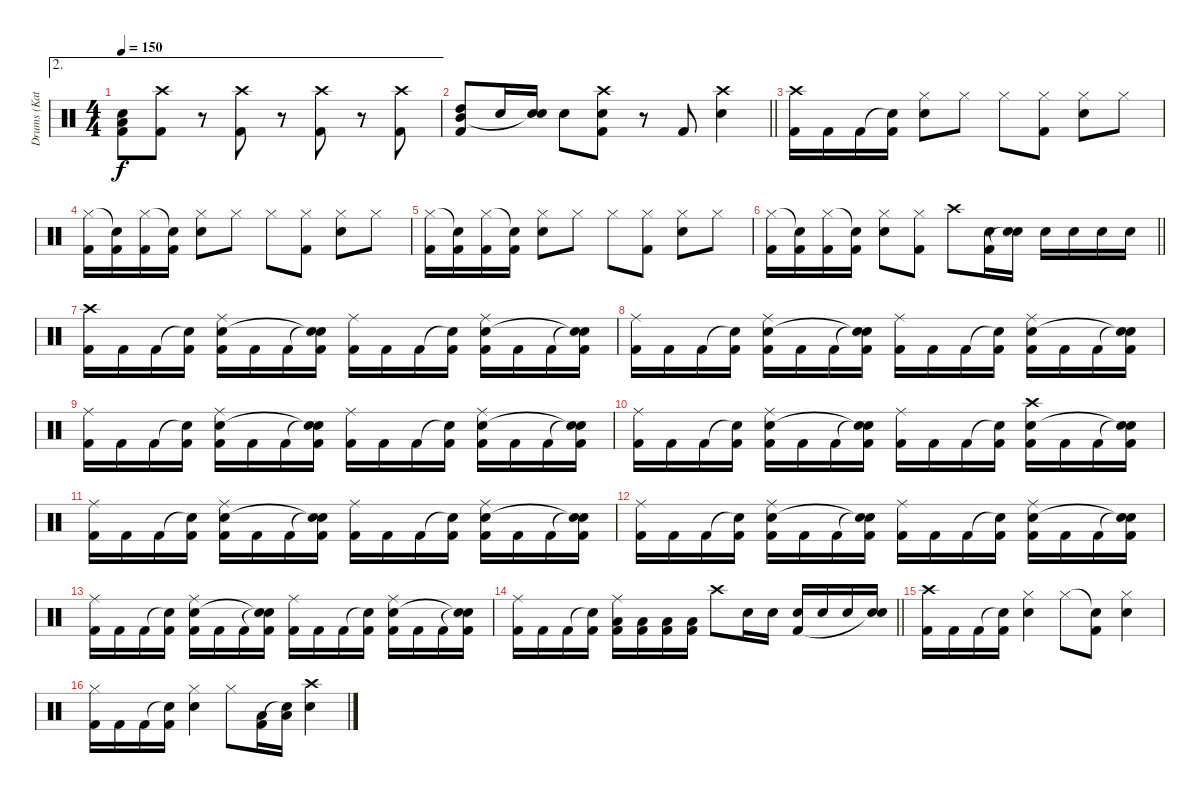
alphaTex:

\track ("Drums (Katsuji)" "Drums (Kat") {instrument percussion}
\staff {score}
\articulation defaults
\ae 2
\ts (4 4)
\tempo 150
\clef neutral
\ks c
("Snare (hit) 2" "Low Tom (hit)" "Kick (hit) 2").8{dy f} ("Crash high (hit)" "Kick (hit) 2").8 r.8 ("Crash high (hit)" "Kick (hit) 2").8 r.8 ("Crash high (hit)" "Kick (hit) 2").8 r.8 ("Crash high (hit)" "Kick (hit) 2").8 |
\barLineRight lightlight
("High Tom (hit)" "Mid Tom (hit)" "Kick (hit) 2").8 "Snare (hit) 2".16 ("Snare (hit) 2" "Snare (hit)"{t}).16 "Snare (hit) 2".8 ("Crash high (hit)" "Snare (hit) 2" "Kick (hit) 2").8 r.8 "Kick (hit) 2".8 ("Crash high (hit)" "Snare (hit) 2").4 |
("Crash high (hit)" "Kick (hit) 2").16 "Kick (hit) 2".16 "Kick (hit) 2".16 ("Snare (hit)"{t} "Kick (hit) 2").16 ("Hi-Hat (closed)" "Snare (hit) 2").8 "Hi-Hat (closed)".8 "Hi-Hat (closed)".8 ("Hi-Hat (closed)" "Kick (hit) 2").8 ("Hi-Hat (closed)" "Snare (hit) 2").8 "Hi-Hat (closed)".8 |
("Hi-Hat (closed)" "Kick (hit) 2").16 ("Snare (hit)"{t} "Kick (hit) 2").16 ("Hi-Hat (closed)" "Kick (hit) 2").16 ("Snare (hit)"{t} "Kick (hit) 2").16 ("Hi-Hat (closed)" "Snare (hit) 2").8 "Hi-Hat (closed)".8 "Hi-Hat (closed)".8 ("Hi-Hat (closed)" "Kick (hit) 2").8 ("Hi-Hat (closed)" "Snare (hit) 2").8 "Hi-Hat (closed)".8 |
("Hi-Hat (closed)" "Kick (hit) 2").16 ("Snare (hit)"{t} "Kick (hit) 2").16 ("Hi-Hat (closed)" "Kick (hit) 2").16 ("Snare (hit)"{t} "Kick (hit) 2").16 ("Hi-Hat (closed)" "Snare (hit) 2").8 "Hi-Hat (closed)".8 "Hi-Hat (closed)".8 ("Hi-Hat (closed)" "Kick (hit) 2").8 ("Hi-Hat (closed)" "Snare (hit) 2").8 "Hi-Hat (closed)".8 |
\barLineRight lightlight
("Hi-Hat (closed)" "Kick (hit) 2").16 ("Snare (hit)"{t} "Kick (hit) 2").16 ("Hi-Hat (closed)" "Kick (hit) 2").16 ("Snare (hit)"{t} "Kick (hit) 2").16 ("Hi-Hat (closed)" "Snare (hit) 2").8 ("Hi-Hat (closed)" "Kick (hit) 2").8 "Crash high (hit)".8 ("Snare (hit) 2" "Kick (hit) 2").16 ("Snare (hit) 2" "Snare (hit)"{t}).16 "Snare (hit) 2".16 "Snare (hit) 2".16 "Snare (hit) 2".16 "Snare (hit) 2".16 |
("Crash high (hit)" "Kick (hit) 2").16 "Kick (hit) 2".16 "Kick (hit) 2".16 ("Snare (hit)"{t} "Kick (hit) 2").16 ("Ride (middle)" "Snare (hit) 2" "Kick (hit) 2").16 "Kick (hit) 2".16 "Kick (hit) 2".16 ("Snare (hit)"{t} "Snare (hit)"{t} "Kick (hit) 2").16 ("Ride (middle)" "Kick (hit) 2").16 "Kick (hit) 2".16 "Kick (hit) 2".16 ("Snare (hit)"{t} "Kick (hit) 2").16 ("Ride (middle)" "Snare (hit) 2" "Kick (hit) 2").16 "Kick (hit) 2".16 "Kick (hit) 2".16 ("Snare (hit)"{t} "Snare (hit)"{t} "Kick (hit) 2").16 |
("Ride (middle)" "Kick (hit) 2").16 "Kick (hit) 2".16 "Kick (hit) 2".16 ("Snare (hit)"{t} "Kick (hit) 2").16 ("Ride (middle)" "Snare (hit) 2" "Kick (hit) 2").16 "Kick (hit) 2".16 "Kick (hit) 2".16 ("Snare (hit)"{t} "Snare (hit)"{t} "Kick (hit) 2").16 ("Ride (middle)" "Kick (hit) 2").16 "Kick (hit) 2".16 "Kick (hit) 2".16 ("Snare (hit)"{t} "Kick (hit) 2").16 ("Ride (middle)" "Snare (hit) 2" "Kick (hit) 2").16 "Kick (hit) 2".16 "Kick (hit) 2".16 ("Snare (hit)"{t} "Snare (hit)"{t} "Kick (hit) 2").16 |
("Ride (middle)" "Kick (hit) 2").16 "Kick (hit) 2".16 "Kick (hit) 2".16 ("Snare (hit)"{t} "Kick (hit) 2").16 ("Ride (middle)" "Snare (hit) 2" "Kick (hit) 2").16 "Kick (hit) 2".16 "Kick (hit) 2".16 ("Snare (hit)"{t} "Snare (hit)"{t} "Kick (hit) 2").16 ("Ride (middle)" "Kick (hit) 2").16 "Kick (hit) 2".16 "Kick (hit) 2".16 ("Snare (hit)"{t} "Kick (hit) 2").16 ("Ride (middle)" "Snare (hit) 2" "Kick (hit) 2").16 "Kick (hit) 2".16 "Kick (hit) 2".16 ("Snare (hit)"{t} "Snare (hit)"{t} "Kick (hit) 2").16 |
("Ride (middle)" "Kick (hit) 2").16 "Kick (hit) 2".16 "Kick (hit) 2".16 ("Snare (hit)"{t} "Kick (hit) 2").16 ("Ride (middle)" "Snare (hit) 2" "Kick (hit) 2").16 "Kick (hit) 2".16 "Kick (hit) 2".16 ("Snare (hit)"{t} "Snare (hit)"{t} "Kick (hit) 2").16 ("Ride (middle)" "Kick (hit) 2").16 "Kick (hit) 2".16 "Kick (hit) 2".16 ("Snare (hit)"{t} "Kick (hit) 2").16 ("Crash high (hit)" "Snare (hit) 2" "Kick (hit) 2").16 "Kick (hit) 2".16 "Kick (hit) 2".16 ("Snare (hit)"{t} "Snare (hit)"{t} "Kick (hit) 2").16 |
("Ride (middle)" "Kick (hit) 2").16 "Kick (hit) 2".16 "Kick (hit) 2".16 ("Snare (hit)"{t} "Kick (hit) 2").16 ("Ride (middle)" "Snare (hit) 2" "Kick (hit) 2").16 "Kick (hit) 2".16 "Kick (hit) 2".16 ("Snare (hit)"{t} "Snare (hit)"{t} "Kick (hit) 2").16 ("Ride (middle)" "Kick (hit) 2").16 "Kick (hit) 2".16 "Kick (hit) 2".16 ("Snare (hit)"{t} "Kick (hit) 2").16 ("Ride (middle)" "Snare (hit) 2" "Kick (hit) 2").16 "Kick (hit) 2".16 "Kick (hit) 2".16 ("Snare (hit)"{t} "Snare (hit)"{t} "Kick (hit) 2").16 |
("Ride (middle)" "Kick (hit) 2").16 "Kick (hit) 2".16 "Kick (hit) 2".16 ("Snare (hit)"{t} "Kick (hit) 2").16 ("Ride (middle)" "Snare (hit) 2" "Kick (hit) 2").16 "Kick (hit) 2".16 "Kick (hit) 2".16 ("Snare (hit)"{t} "Snare (hit)"{t} "Kick (hit) 2").16 ("Ride (middle)" "Kick (hit) 2").16 "Kick (hit) 2".16 "Kick (hit) 2".16 ("Snare (hit)"{t} "Kick (hit) 2").16 ("Ride (middle)" "Snare (hit) 2" "Kick (hit) 2").16 "Kick (hit) 2".16 "Kick (hit) 2".16 ("Snare (hit)"{t} "Snare (hit)"{t} "Kick (hit) 2").16 |
("Ride (middle)" "Kick (hit) 2").16 "Kick (hit) 2".16 "Kick (hit) 2".16 ("Snare (hit)"{t} "Kick (hit) 2").16 ("Ride (middle)" "Snare (hit) 2" "Kick (hit) 2").16 "Kick (hit) 2".16 "Kick (hit) 2".16 ("Snare (hit)"{t} "Snare (hit)"{t} "Kick (hit) 2").16 ("Ride (middle)" "Kick (hit) 2").16 "Kick (hit) 2".16 "Kick (hit) 2".16 ("Snare (hit)"{t} "Kick (hit) 2").16 ("Ride (middle)" "Snare (hit) 2" "Kick (hit) 2").16 "Kick (hit) 2".16 "Kick (hit) 2".16 ("Snare (hit)"{t} "Snare (hit)"{t} "Kick (hit) 2").16 |
\barLineRight lightlight
("Ride (middle)" "Kick (hit) 2").16 "Kick (hit) 2".16 "Kick (hit) 2".16 ("Snare (hit)"{t} "Kick (hit) 2").16 ("Ride (middle)" "Low Tom (hit)" "Kick (hit) 2").16 ("Low Tom (hit)" "Kick (hit) 2").16 ("Low Tom (hit)" "Kick (hit) 2").16 ("Low Tom (hit)" "Kick (hit) 2").16 "Crash high (hit)".8 "Snare (hit) 2".16 "Snare (hit) 2".16 ("Snare (hit) 2" "Kick (hit) 2").16 "Snare (hit) 2".16 "Snare (hit) 2".16 ("Snare (hit) 2" "Snare (hit)"{t}).16 |
("Crash high (hit)" "Kick (hit) 2").16 "Kick (hit) 2".16 "Kick (hit) 2".16 ("Snare (hit)"{t} "Kick (hit) 2").16 ("Hi-Hat (closed)" "Snare (hit) 2").4 "Hi-Hat (closed)".8 ("Snare (hit)"{t} "Kick (hit) 2").8 ("Hi-Hat (closed)" "Snare (hit) 2").4 |
("Hi-Hat (closed)" "Kick (hit) 2").16 "Kick (hit) 2".16 "Kick (hit) 2".16 ("Snare (hit)"{t} "Kick (hit) 2").16 ("Hi-Hat (closed)" "Snare (hit) 2").4 "Hi-Hat (closed)".8 ("Low Tom (hit)" "Kick (hit) 2").16 ("Low Tom (hit)" "Snare (hit)"{t}).16 ("Crash high (hit)" "Snare (hit) 2").4
